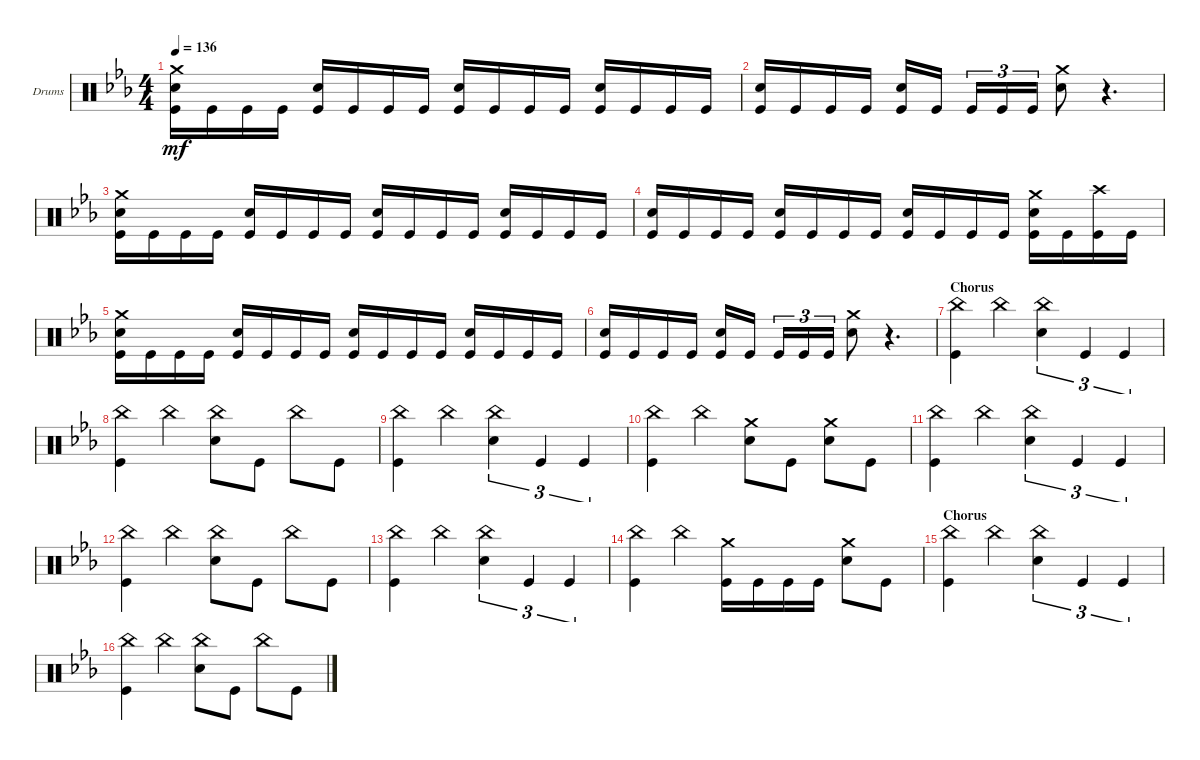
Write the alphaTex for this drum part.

\defaultSystemsLayout 4
\bracketExtendMode groupsimilarinstruments
\firstSystemTrackNameOrientation horizontal
\otherSystemsTrackNameOrientation horizontal
\track ("Drumkit" "Drums") {instrument percussion}
\staff {score}
\articulation defaults
\ts (4 4)
\tempo 136
\clef neutral
\ks cminor
("Kick (hit)" "Snare (hit) 2" "Crash medium (hit)").16{dy mf} "Kick (hit)".16 "Kick (hit)".16 "Kick (hit)".16 ("Kick (hit)" "Snare (hit) 2").16 "Kick (hit)".16 "Kick (hit)".16 "Kick (hit)".16 ("Kick (hit)" "Snare (hit) 2").16 "Kick (hit)".16 "Kick (hit)".16 "Kick (hit)".16 ("Kick (hit)" "Snare (hit) 2").16 "Kick (hit)".16 "Kick (hit)".16 "Kick (hit)".16 |
("Kick (hit)" "Snare (hit) 2").16 "Kick (hit)".16 "Kick (hit)".16 "Kick (hit)".16 ("Kick (hit)" "Snare (hit) 2").16 "Kick (hit)".16 "Kick (hit)".16{tu (3 2)} "Kick (hit)".16{tu (3 2)} "Kick (hit)".16{tu (3 2)} ("Snare (hit) 2" "Crash medium (hit)").8 r.4{d} |
("Kick (hit)" "Snare (hit) 2" "Crash medium (hit)").16 "Kick (hit)".16 "Kick (hit)".16 "Kick (hit)".16 ("Kick (hit)" "Snare (hit) 2").16 "Kick (hit)".16 "Kick (hit)".16 "Kick (hit)".16 ("Kick (hit)" "Snare (hit) 2").16 "Kick (hit)".16 "Kick (hit)".16 "Kick (hit)".16 ("Kick (hit)" "Snare (hit) 2").16 "Kick (hit)".16 "Kick (hit)".16 "Kick (hit)".16 |
("Kick (hit)" "Snare (hit) 2").16 "Kick (hit)".16 "Kick (hit)".16 "Kick (hit)".16 ("Kick (hit)" "Snare (hit) 2").16 "Kick (hit)".16 "Kick (hit)".16 "Kick (hit)".16 ("Kick (hit)" "Snare (hit) 2").16 "Kick (hit)".16 "Kick (hit)".16 "Kick (hit)".16 ("Kick (hit)" "Snare (hit) 2" "Crash medium (hit)").16 "Kick (hit)".16 ("Kick (hit)" "Crash high (hit)").16 "Kick (hit)".16 |
("Kick (hit)" "Snare (hit) 2" "Crash medium (hit)").16 "Kick (hit)".16 "Kick (hit)".16 "Kick (hit)".16 ("Kick (hit)" "Snare (hit) 2").16 "Kick (hit)".16 "Kick (hit)".16 "Kick (hit)".16 ("Kick (hit)" "Snare (hit) 2").16 "Kick (hit)".16 "Kick (hit)".16 "Kick (hit)".16 ("Kick (hit)" "Snare (hit) 2").16 "Kick (hit)".16 "Kick (hit)".16 "Kick (hit)".16 |
("Kick (hit)" "Snare (hit) 2").16 "Kick (hit)".16 "Kick (hit)".16 "Kick (hit)".16 ("Kick (hit)" "Snare (hit) 2").16 "Kick (hit)".16 "Kick (hit)".16{tu (3 2)} "Kick (hit)".16{tu (3 2)} "Kick (hit)".16{tu (3 2)} ("Snare (hit) 2" "Crash medium (hit)").8 r.4{d} |
\section ("" "Chorus")
("Kick (hit)" "China (hit)").4 "China (hit)".4 ("Snare (hit) 2" "China (hit)").4{tu (3 2)} "Kick (hit)".4{tu (3 2)} "Kick (hit)".4{tu (3 2)} |
("Kick (hit)" "China (hit)").4 "China (hit)".4 ("Snare (hit) 2" "China (hit)").8 "Kick (hit)".8 "China (hit)".8 "Kick (hit)".8 |
("Kick (hit)" "China (hit)").4 "China (hit)".4 ("Snare (hit) 2" "China (hit)").4{tu (3 2)} "Kick (hit)".4{tu (3 2)} "Kick (hit)".4{tu (3 2)} |
("Kick (hit)" "China (hit)").4 "China (hit)".4 ("Crash medium (hit)" "Snare (hit) 2").8 "Kick (hit)".8 ("Snare (hit) 2" "Crash medium (hit)").8 "Kick (hit)".8 |
("Kick (hit)" "China (hit)").4 "China (hit)".4 ("Snare (hit) 2" "China (hit)").4{tu (3 2)} "Kick (hit)".4{tu (3 2)} "Kick (hit)".4{tu (3 2)} |
("Kick (hit)" "China (hit)").4 "China (hit)".4 ("Snare (hit) 2" "China (hit)").8 "Kick (hit)".8 "China (hit)".8 "Kick (hit)".8 |
("Kick (hit)" "China (hit)").4 "China (hit)".4 ("Snare (hit) 2" "China (hit)").4{tu (3 2)} "Kick (hit)".4{tu (3 2)} "Kick (hit)".4{tu (3 2)} |
("Kick (hit)" "China (hit)").4 "China (hit)".4 ("Kick (hit)" "Crash medium (hit)").16 "Kick (hit)".16 "Kick (hit)".16 "Kick (hit)".16 ("Snare (hit) 2" "Crash medium (hit)").8 "Kick (hit)".8 |
\section ("" "Chorus")
("Kick (hit)" "China (hit)").4 "China (hit)".4 ("Snare (hit) 2" "China (hit)").4{tu (3 2)} "Kick (hit)".4{tu (3 2)} "Kick (hit)".4{tu (3 2)} |
("Kick (hit)" "China (hit)").4 "China (hit)".4 ("Snare (hit) 2" "China (hit)").8 "Kick (hit)".8 "China (hit)".8 "Kick (hit)".8
